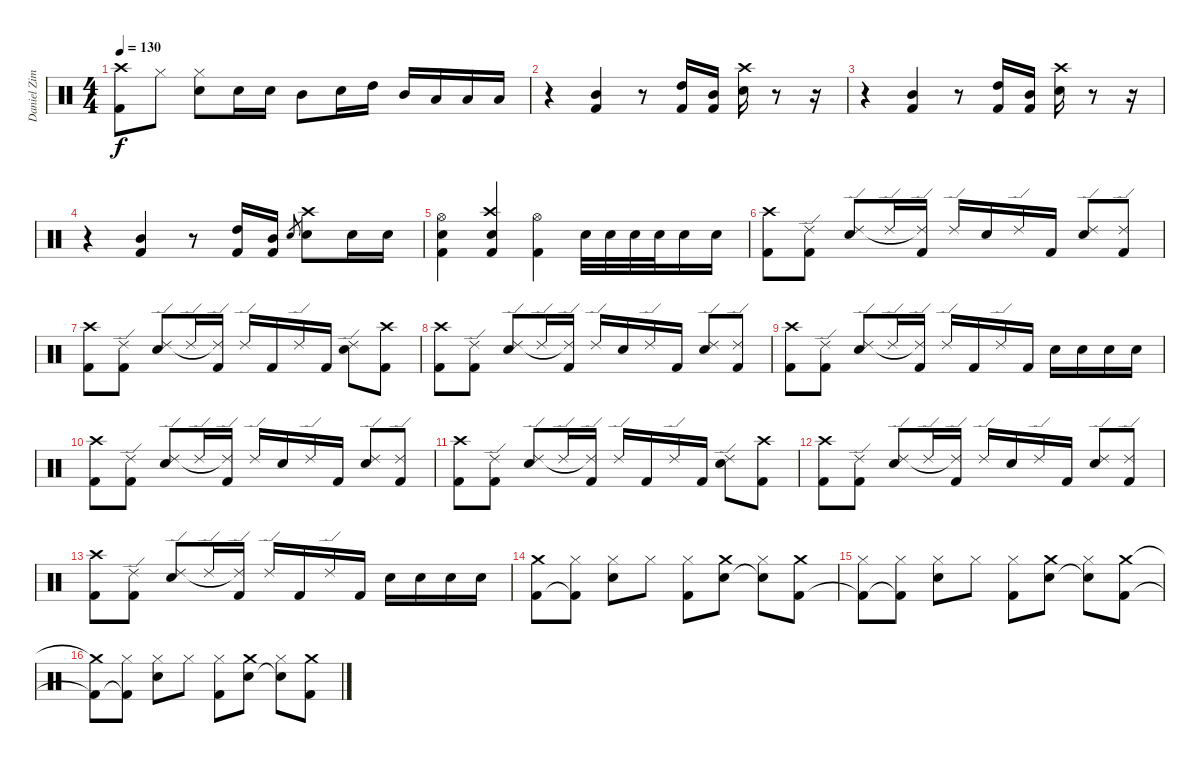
\track ("Daniel Zimmermann" "Daniel Zim") {instrument percussion}
\staff {score}
\articulation defaults
\ts (4 4)
\tempo 130
\clef neutral
\ks c
("Kick (hit) 2"{t} "Crash high (hit)").8{dy f} "Hi-Hat (closed)".8 ("Electric Snare (hit)" "Hi-Hat (closed)").8 "Electric Snare (hit)".16 "Electric Snare (hit)".16 "Mid Tom (hit)".8 "Electric Snare (hit)".16 "High Tom (hit)".16 "Mid Tom (hit)".16 "Low Tom (hit)".16 "Low Floor Tom (hit)".16 "Low Floor Tom (hit)".16 |
r.4 ("Kick (hit) 2" "Mid Tom (hit)").4 r.8 ("Kick (hit) 2" "High Tom (hit)").16 ("Kick (hit) 2" "Mid Tom (hit)").16 ("Electric Snare (hit)" "Crash high (hit)").16 r.8 r.16 |
r.4 ("Kick (hit) 2" "Mid Tom (hit)").4 r.8 ("Kick (hit) 2" "High Tom (hit)").16 ("Kick (hit) 2" "Mid Tom (hit)").16 ("Electric Snare (hit)" "Crash high (hit)").16 r.8 r.16 |
r.4 ("Kick (hit) 2" "Mid Tom (hit)").4 r.8 ("Kick (hit) 2" "High Tom (hit)").16 ("Kick (hit) 2" "Mid Tom (hit)").16 "Electric Snare (hit)".8{gr} ("Electric Snare (hit)" "Crash high (hit)").8 "Electric Snare (hit)".16 "Electric Snare (hit)".16 |
("Kick (hit) 2" "Hi-Hat (open)" "Electric Snare (hit)").4 ("Kick (hit) 2" "Crash high (hit)" "Electric Snare (hit)").4 ("Kick (hit) 2" "Hi-Hat (open)").4 "Electric Snare (hit)".32 "Electric Snare (hit)".32 "Electric Snare (hit)".32 "Electric Snare (hit)".32 "Electric Snare (hit)".16 "Electric Snare (hit)".16 |
("Kick (hit) 2" "Crash high (hit)").8 ("Kick (hit) 2" "Ride (edge) 2").8 ("Electric Snare (hit)" "Ride (edge) 2").8 "Ride (edge) 2".16 ("Kick (hit) 2" "Ride (edge) 2"{t}).16 "Ride (edge) 2".16 "Electric Snare (hit)".16 "Ride (edge) 2".16 "Kick (hit) 2".16 ("Electric Snare (hit)" "Ride (edge) 2").8 ("Kick (hit) 2" "Ride (edge) 2").8 |
("Kick (hit) 2" "Crash high (hit)").8 ("Kick (hit) 2" "Ride (edge) 2").8 ("Electric Snare (hit)" "Ride (edge) 2").8 "Ride (edge) 2".16 ("Kick (hit) 2" "Ride (edge) 2"{t}).16 "Ride (edge) 2".16 "Kick (hit) 2".16 "Ride (edge) 2".16 "Kick (hit) 2".16 ("Electric Snare (hit)" "Ride (edge) 2").8 ("Kick (hit) 2" "Crash high (hit)").8 |
("Kick (hit) 2" "Crash high (hit)").8 ("Kick (hit) 2" "Ride (edge) 2").8 ("Electric Snare (hit)" "Ride (edge) 2").8 "Ride (edge) 2".16 ("Kick (hit) 2" "Ride (edge) 2"{t}).16 "Ride (edge) 2".16 "Electric Snare (hit)".16 "Ride (edge) 2".16 "Kick (hit) 2".16 ("Electric Snare (hit)" "Ride (edge) 2").8 ("Kick (hit) 2" "Ride (edge) 2").8 |
("Kick (hit) 2" "Crash high (hit)").8 ("Kick (hit) 2" "Ride (edge) 2").8 ("Electric Snare (hit)" "Ride (edge) 2").8 "Ride (edge) 2".16 ("Kick (hit) 2" "Ride (edge) 2"{t}).16 "Ride (edge) 2".16 "Kick (hit) 2".16 "Ride (edge) 2".16 "Kick (hit) 2".16 "Electric Snare (hit)".16 "Electric Snare (hit)".16 "Electric Snare (hit)".16 "Electric Snare (hit)".16 |
("Kick (hit) 2" "Crash high (hit)").8 ("Kick (hit) 2" "Ride (edge) 2").8 ("Electric Snare (hit)" "Ride (edge) 2").8 "Ride (edge) 2".16 ("Kick (hit) 2" "Ride (edge) 2"{t}).16 "Ride (edge) 2".16 "Electric Snare (hit)".16 "Ride (edge) 2".16 "Kick (hit) 2".16 ("Electric Snare (hit)" "Ride (edge) 2").8 ("Kick (hit) 2" "Ride (edge) 2").8 |
("Kick (hit) 2" "Crash high (hit)").8 ("Kick (hit) 2" "Ride (edge) 2").8 ("Electric Snare (hit)" "Ride (edge) 2").8 "Ride (edge) 2".16 ("Kick (hit) 2" "Ride (edge) 2"{t}).16 "Ride (edge) 2".16 "Kick (hit) 2".16 "Ride (edge) 2".16 "Kick (hit) 2".16 ("Electric Snare (hit)" "Ride (edge) 2").8 ("Kick (hit) 2" "Crash high (hit)").8 |
("Kick (hit) 2" "Crash high (hit)").8 ("Kick (hit) 2" "Ride (edge) 2").8 ("Electric Snare (hit)" "Ride (edge) 2").8 "Ride (edge) 2".16 ("Kick (hit) 2" "Ride (edge) 2"{t}).16 "Ride (edge) 2".16 "Electric Snare (hit)".16 "Ride (edge) 2".16 "Kick (hit) 2".16 ("Electric Snare (hit)" "Ride (edge) 2").8 ("Kick (hit) 2" "Ride (edge) 2").8 |
("Kick (hit) 2" "Crash high (hit)").8 ("Kick (hit) 2" "Ride (edge) 2").8 ("Electric Snare (hit)" "Ride (edge) 2").8 "Ride (edge) 2".16 ("Kick (hit) 2" "Ride (edge) 2"{t}).16 "Ride (edge) 2".16 "Kick (hit) 2".16 "Ride (edge) 2".16 "Kick (hit) 2".16 "Electric Snare (hit)".16 "Electric Snare (hit)".16 "Electric Snare (hit)".16 "Electric Snare (hit)".16 |
("Kick (hit) 2" "Crash medium (hit)").8 ("Kick (hit) 2"{t} "Hi-Hat (closed)").8 ("Electric Snare (hit)" "Hi-Hat (closed)").8 "Hi-Hat (closed)".8 ("Kick (hit) 2" "Hi-Hat (closed)").8 ("Electric Snare (hit)" "Crash medium (hit)").8 ("Electric Snare (hit)"{t} "Hi-Hat (closed)").8 ("Kick (hit) 2" "Crash medium (hit)").8 |
("Kick (hit) 2"{t} "Hi-Hat (closed)").8 ("Kick (hit) 2"{t} "Hi-Hat (closed)").8 ("Electric Snare (hit)" "Hi-Hat (closed)").8 "Hi-Hat (closed)".8 ("Kick (hit) 2" "Hi-Hat (closed)").8 ("Electric Snare (hit)" "Crash medium (hit)").8 ("Electric Snare (hit)"{t} "Hi-Hat (closed)").8 ("Kick (hit) 2" "Crash medium (hit)").8 |
("Kick (hit) 2"{t} "Crash medium (hit)"{t}).8 ("Kick (hit) 2"{t} "Hi-Hat (closed)").8 ("Electric Snare (hit)" "Hi-Hat (closed)").8 "Hi-Hat (closed)".8 ("Kick (hit) 2" "Hi-Hat (closed)").8 ("Electric Snare (hit)" "Crash medium (hit)").8 ("Electric Snare (hit)"{t} "Hi-Hat (closed)").8 ("Kick (hit) 2" "Crash medium (hit)").8
